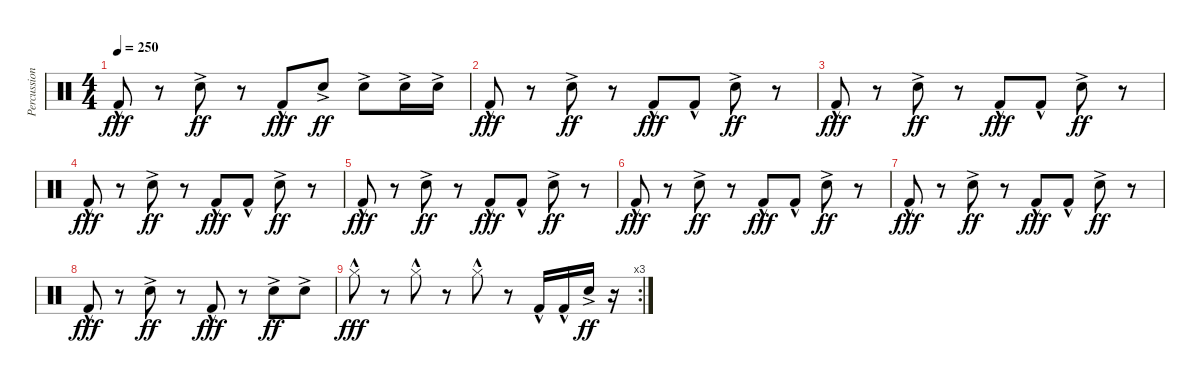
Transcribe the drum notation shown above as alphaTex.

\track ("Percussion" "Percussion") {instrument percussion}
\staff {score}
\articulation defaults
\ts (4 4)
\tempo 250
\clef neutral
\ks c "Kick (hit) 2"{hac}.8{dy fff}
r.8 "Snare (hit) 2"{ac}.8{dy ff} r.8 "Kick (hit) 2"{hac}.8{dy fff} "Snare (hit) 2"{ac}.8{dy ff} "Snare (hit) 2"{ac}.8 "Snare (hit) 2"{ac}.16 "Snare (hit) 2"{ac}.16 |
"Kick (hit) 2"{hac}.8{dy fff} r.8 "Snare (hit) 2"{ac}.8{dy ff} r.8 "Kick (hit) 2"{hac}.8{dy fff} "Kick (hit) 2"{hac}.8 "Snare (hit) 2"{ac}.8{dy ff} r.8 |
"Kick (hit) 2"{hac}.8{dy fff} r.8 "Snare (hit) 2"{ac}.8{dy ff} r.8 "Kick (hit) 2"{hac}.8{dy fff} "Kick (hit) 2"{hac}.8 "Snare (hit) 2"{ac}.8{dy ff} r.8 |
"Kick (hit) 2"{hac}.8{dy fff} r.8 "Snare (hit) 2"{ac}.8{dy ff} r.8 "Kick (hit) 2"{hac}.8{dy fff} "Kick (hit) 2"{hac}.8 "Snare (hit) 2"{ac}.8{dy ff} r.8 |
"Kick (hit) 2"{hac}.8{dy fff} r.8 "Snare (hit) 2"{ac}.8{dy ff} r.8 "Kick (hit) 2"{hac}.8{dy fff} "Kick (hit) 2"{hac}.8 "Snare (hit) 2"{ac}.8{dy ff} r.8 |
"Kick (hit) 2"{hac}.8{dy fff} r.8 "Snare (hit) 2"{ac}.8{dy ff} r.8 "Kick (hit) 2"{hac}.8{dy fff} "Kick (hit) 2"{hac}.8 "Snare (hit) 2"{ac}.8{dy ff} r.8 |
"Kick (hit) 2"{hac}.8{dy fff} r.8 "Snare (hit) 2"{ac}.8{dy ff} r.8 "Kick (hit) 2"{hac}.8{dy fff} "Kick (hit) 2"{hac}.8 "Snare (hit) 2"{ac}.8{dy ff} r.8 |
"Kick (hit) 2"{hac}.8{dy fff} r.8 "Snare (hit) 2"{ac}.8{dy ff} r.8 "Kick (hit) 2"{hac}.8{dy fff} r.8 "Snare (hit) 2"{ac}.8{dy ff} "Snare (hit) 2"{ac}.8 |
\rc 3 "Hi-Hat (closed)"{hac}.8{dy fff}
r.8 "Hi-Hat (closed)"{hac}.8 r.8 "Hi-Hat (closed)"{hac}.8 r.8 "Kick (hit) 2"{hac}.16 "Kick (hit) 2"{hac}.16 "Snare (hit) 2"{ac}.16{dy ff} r.16
